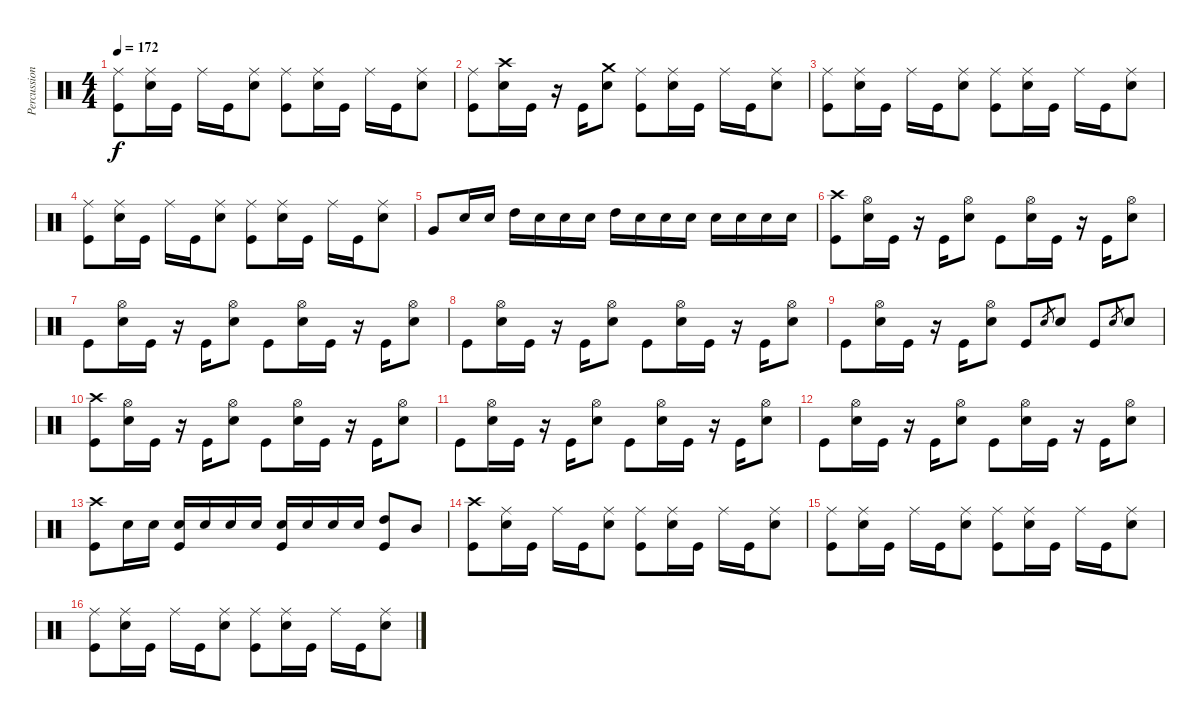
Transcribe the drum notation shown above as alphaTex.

\track ("Percussion" "Percussion") {instrument percussion}
\staff {score}
\articulation defaults
\ts (4 4)
\tempo 172
\clef neutral
\ks c
("Ride (middle)" "Kick (hit)").8{dy f} ("Ride (middle)" "Snare (hit) 2").16 "Kick (hit)".16 "Ride (middle)".16 "Kick (hit)".16 ("Ride (middle)" "Snare (hit) 2").8 ("Ride (middle)" "Kick (hit)").8 ("Ride (middle)" "Snare (hit) 2").16 "Kick (hit)".16 "Ride (middle)".16 "Kick (hit)".16 ("Ride (middle)" "Snare (hit) 2").8 |
("Ride (middle)" "Kick (hit)").8 ("Crash high (hit)" "Snare (hit) 2").16 "Kick (hit)".16 r.16 "Kick (hit)".16 ("Crash medium (hit)" "Snare (hit) 2").8 ("Ride (middle)" "Kick (hit)").8 ("Ride (middle)" "Snare (hit) 2").16 "Kick (hit)".16 "Ride (middle)".16 "Kick (hit)".16 ("Ride (middle)" "Snare (hit) 2").8 |
("Ride (middle)" "Kick (hit)").8 ("Ride (middle)" "Snare (hit) 2").16 "Kick (hit)".16 "Ride (middle)".16 "Kick (hit)".16 ("Ride (middle)" "Snare (hit) 2").8 ("Ride (middle)" "Kick (hit)").8 ("Ride (middle)" "Snare (hit) 2").16 "Kick (hit)".16 "Ride (middle)".16 "Kick (hit)".16 ("Ride (middle)" "Snare (hit) 2").8 |
("Ride (middle)" "Kick (hit)").8 ("Ride (middle)" "Snare (hit) 2").16 "Kick (hit)".16 "Ride (middle)".16 "Kick (hit)".16 ("Ride (middle)" "Snare (hit) 2").8 ("Ride (middle)" "Kick (hit)").8 ("Ride (middle)" "Snare (hit) 2").16 "Kick (hit)".16 "Ride (middle)".16 "Kick (hit)".16 ("Ride (middle)" "Snare (hit) 2").8 |
"Very Low Tom (hit)".8 "Snare (hit) 2".16 "Snare (hit) 2".16 "High Tom (hit)".16 "Snare (hit) 2".16 "Snare (hit) 2".16 "Snare (hit) 2".16 "High Tom (hit)".16 "Snare (hit) 2".16 "Snare (hit) 2".16 "Snare (hit) 2".16 "Snare (hit) 2".16 "Snare (hit) 2".16 "Snare (hit) 2".16 "Snare (hit) 2".16 |
("Crash high (hit)" "Kick (hit)").8 ("Hi-Hat (open)" "Snare (hit) 2").16 "Kick (hit)".16 r.16 "Kick (hit)".16 ("Hi-Hat (open)" "Snare (hit) 2").8 "Kick (hit)".8 ("Hi-Hat (open)" "Snare (hit) 2").16 "Kick (hit)".16 r.16 "Kick (hit)".16 ("Hi-Hat (open)" "Snare (hit) 2").8 |
"Kick (hit)".8 ("Hi-Hat (open)" "Snare (hit) 2").16 "Kick (hit)".16 r.16 "Kick (hit)".16 ("Hi-Hat (open)" "Snare (hit) 2").8 "Kick (hit)".8 ("Hi-Hat (open)" "Snare (hit) 2").16 "Kick (hit)".16 r.16 "Kick (hit)".16 ("Hi-Hat (open)" "Snare (hit) 2").8 |
"Kick (hit)".8 ("Hi-Hat (open)" "Snare (hit) 2").16 "Kick (hit)".16 r.16 "Kick (hit)".16 ("Hi-Hat (open)" "Snare (hit) 2").8 "Kick (hit)".8 ("Hi-Hat (open)" "Snare (hit) 2").16 "Kick (hit)".16 r.16 "Kick (hit)".16 ("Hi-Hat (open)" "Snare (hit) 2").8 |
"Kick (hit)".8 ("Hi-Hat (open)" "Snare (hit) 2").16 "Kick (hit)".16 r.16 "Kick (hit)".16 ("Hi-Hat (open)" "Snare (hit) 2").8 "Kick (hit)".8 "Snare (hit) 2".8{gr} "Snare (hit) 2".8 "Kick (hit)".8 "Snare (hit) 2".8{gr} "Snare (hit) 2".8 |
("Crash high (hit)" "Kick (hit)").8 ("Hi-Hat (open)" "Snare (hit) 2").16 "Kick (hit)".16 r.16 "Kick (hit)".16 ("Hi-Hat (open)" "Snare (hit) 2").8 "Kick (hit)".8 ("Hi-Hat (open)" "Snare (hit) 2").16 "Kick (hit)".16 r.16 "Kick (hit)".16 ("Hi-Hat (open)" "Snare (hit) 2").8 |
"Kick (hit)".8 ("Hi-Hat (open)" "Snare (hit) 2").16 "Kick (hit)".16 r.16 "Kick (hit)".16 ("Hi-Hat (open)" "Snare (hit) 2").8 "Kick (hit)".8 ("Hi-Hat (open)" "Snare (hit) 2").16 "Kick (hit)".16 r.16 "Kick (hit)".16 ("Hi-Hat (open)" "Snare (hit) 2").8 |
"Kick (hit)".8 ("Hi-Hat (open)" "Snare (hit) 2").16 "Kick (hit)".16 r.16 "Kick (hit)".16 ("Hi-Hat (open)" "Snare (hit) 2").8 "Kick (hit)".8 ("Hi-Hat (open)" "Snare (hit) 2").16 "Kick (hit)".16 r.16 "Kick (hit)".16 ("Hi-Hat (open)" "Snare (hit) 2").8 |
("Crash high (hit)" "Kick (hit)").8 "Snare (hit) 2".16 "Snare (hit) 2".16 ("Snare (hit) 2" "Kick (hit)").16 "Snare (hit) 2".16 "Snare (hit) 2".16 "Snare (hit) 2".16 ("Snare (hit) 2" "Kick (hit)").16 "Snare (hit) 2".16 "Snare (hit) 2".16 "Snare (hit) 2".16 ("High Tom (hit)" "Kick (hit)").8 "Mid Tom (hit)".8 |
("Crash high (hit)" "Kick (hit)").8 ("Ride (middle)" "Snare (hit) 2").16 "Kick (hit)".16 "Ride (middle)".16 "Kick (hit)".16 ("Ride (middle)" "Snare (hit) 2").8 ("Ride (middle)" "Kick (hit)").8 ("Ride (middle)" "Snare (hit) 2").16 "Kick (hit)".16 "Ride (middle)".16 "Kick (hit)".16 ("Ride (middle)" "Snare (hit) 2").8 |
("Ride (middle)" "Kick (hit)").8 ("Ride (middle)" "Snare (hit) 2").16 "Kick (hit)".16 "Ride (middle)".16 "Kick (hit)".16 ("Ride (middle)" "Snare (hit) 2").8 ("Ride (middle)" "Kick (hit)").8 ("Ride (middle)" "Snare (hit) 2").16 "Kick (hit)".16 "Ride (middle)".16 "Kick (hit)".16 ("Ride (middle)" "Snare (hit) 2").8 |
("Ride (middle)" "Kick (hit)").8 ("Ride (middle)" "Snare (hit) 2").16 "Kick (hit)".16 "Ride (middle)".16 "Kick (hit)".16 ("Ride (middle)" "Snare (hit) 2").8 ("Ride (middle)" "Kick (hit)").8 ("Ride (middle)" "Snare (hit) 2").16 "Kick (hit)".16 "Ride (middle)".16 "Kick (hit)".16 ("Ride (middle)" "Snare (hit) 2").8
